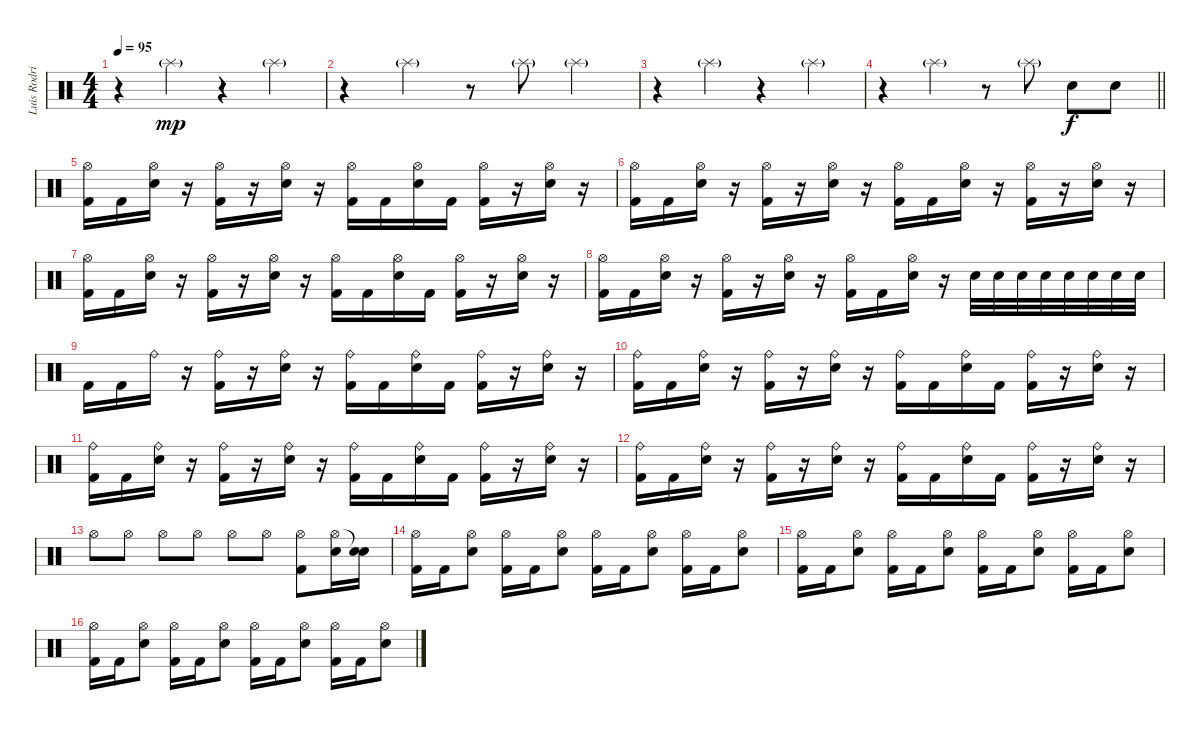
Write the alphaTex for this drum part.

\track ("Luis Rodriguez" "Luis Rodri") {instrument percussion}
\staff {score}
\articulation defaults
\ts (4 4)
\tempo 95
\clef neutral
\ks c
r.4{dy mp} "Splash (hit)"{g}.4 r.4 "Splash (hit)"{g}.4 |
r.4 "Splash (hit)"{g}.4 r.8 "Splash (hit)"{g}.8 "Splash (hit)"{g}.4 |
r.4 "Splash (hit)"{g}.4 r.4 "Splash (hit)"{g}.4 |
\barLineRight lightlight
r.4 "Splash (hit)"{g}.4 r.8 "Splash (hit)"{g}.8 "Electric Snare (hit)".8{dy f} "Electric Snare (hit)".8 |
("Hi-Hat (open)" "Kick (hit) 2").16 "Kick (hit) 2".16 ("Hi-Hat (open)" "Electric Snare (hit)").16 r.16 ("Hi-Hat (open)" "Kick (hit) 2").16 r.16 ("Hi-Hat (open)" "Electric Snare (hit)").16 r.16 ("Hi-Hat (open)" "Kick (hit) 2").16 "Kick (hit) 2".16 ("Hi-Hat (open)" "Electric Snare (hit)").16 "Kick (hit) 2".16 ("Hi-Hat (open)" "Kick (hit) 2").16 r.16 ("Hi-Hat (open)" "Electric Snare (hit)").16 r.16 |
("Hi-Hat (open)" "Kick (hit) 2").16 "Kick (hit) 2".16 ("Hi-Hat (open)" "Electric Snare (hit)").16 r.16 ("Hi-Hat (open)" "Kick (hit) 2").16 r.16 ("Hi-Hat (open)" "Electric Snare (hit)").16 r.16 ("Hi-Hat (open)" "Kick (hit) 2").16 "Kick (hit) 2".16 ("Hi-Hat (open)" "Electric Snare (hit)").16 r.16 ("Hi-Hat (open)" "Kick (hit) 2").16 r.16 ("Hi-Hat (open)" "Electric Snare (hit)").16 r.16 |
("Hi-Hat (open)" "Kick (hit) 2").16 "Kick (hit) 2".16 ("Hi-Hat (open)" "Electric Snare (hit)").16 r.16 ("Hi-Hat (open)" "Kick (hit) 2").16 r.16 ("Hi-Hat (open)" "Electric Snare (hit)").16 r.16 ("Hi-Hat (open)" "Kick (hit) 2").16 "Kick (hit) 2".16 ("Hi-Hat (open)" "Electric Snare (hit)").16 "Kick (hit) 2".16 ("Hi-Hat (open)" "Kick (hit) 2").16 r.16 ("Hi-Hat (open)" "Electric Snare (hit)").16 r.16 |
("Hi-Hat (open)" "Kick (hit) 2").16 "Kick (hit) 2".16 ("Hi-Hat (open)" "Electric Snare (hit)").16 r.16 ("Hi-Hat (open)" "Kick (hit) 2").16 r.16 ("Hi-Hat (open)" "Electric Snare (hit)").16 r.16 ("Hi-Hat (open)" "Kick (hit) 2").16 "Kick (hit) 2".16 ("Hi-Hat (open)" "Electric Snare (hit)").16 r.16 "Electric Snare (hit)".32 "Electric Snare (hit)".32 "Electric Snare (hit)".32 "Electric Snare (hit)".32 "Electric Snare (hit)".32 "Electric Snare (hit)".32 "Electric Snare (hit)".32 "Electric Snare (hit)".32 |
"Kick (hit) 2".16 "Kick (hit) 2".16 "Ride (bell)".16 r.16 ("Ride (bell)" "Kick (hit) 2").16 r.16 ("Ride (bell)" "Snare (hit) 2").16 r.16 ("Ride (bell)" "Kick (hit) 2").16 "Kick (hit) 2".16 ("Ride (bell)" "Snare (hit) 2").16 "Kick (hit) 2".16 ("Ride (bell)" "Kick (hit) 2").16 r.16 ("Ride (bell)" "Snare (hit) 2").16 r.16 |
("Ride (bell)" "Kick (hit) 2").16 "Kick (hit) 2".16 ("Ride (bell)" "Snare (hit) 2").16 r.16 ("Ride (bell)" "Kick (hit) 2").16 r.16 ("Ride (bell)" "Snare (hit) 2").16 r.16 ("Ride (bell)" "Kick (hit) 2").16 "Kick (hit) 2".16 ("Ride (bell)" "Snare (hit) 2").16 "Kick (hit) 2".16 ("Ride (bell)" "Kick (hit) 2").16 r.16 ("Ride (bell)" "Snare (hit) 2").16 r.16 |
("Ride (bell)" "Kick (hit) 2").16 "Kick (hit) 2".16 ("Ride (bell)" "Snare (hit) 2").16 r.16 ("Ride (bell)" "Kick (hit) 2").16 r.16 ("Ride (bell)" "Snare (hit) 2").16 r.16 ("Ride (bell)" "Kick (hit) 2").16 "Kick (hit) 2".16 ("Ride (bell)" "Snare (hit) 2").16 "Kick (hit) 2".16 ("Ride (bell)" "Kick (hit) 2").16 r.16 ("Ride (bell)" "Snare (hit) 2").16 r.16 |
("Ride (bell)" "Kick (hit) 2").16 "Kick (hit) 2".16 ("Ride (bell)" "Snare (hit) 2").16 r.16 ("Ride (bell)" "Kick (hit) 2").16 r.16 ("Ride (bell)" "Snare (hit) 2").16 r.16 ("Ride (bell)" "Kick (hit) 2").16 "Kick (hit) 2".16 ("Ride (bell)" "Snare (hit) 2").16 "Kick (hit) 2".16 ("Ride (bell)" "Kick (hit) 2").16 r.16 ("Ride (bell)" "Snare (hit) 2").16 r.16 |
"Hi-Hat (open)".8 "Hi-Hat (open)".8 "Hi-Hat (open)".8 "Hi-Hat (open)".8 "Hi-Hat (open)".8 "Hi-Hat (open)".8 ("Hi-Hat (open)" "Kick (hit) 2").8 ("Hi-Hat (open)" "Snare (hit) 2").16 ("Snare (hit)"{t} "Snare (hit) 2").16 |
("Hi-Hat (open)" "Kick (hit) 2").16 "Kick (hit) 2".16 ("Hi-Hat (open)" "Snare (hit) 2").8 ("Hi-Hat (open)" "Kick (hit) 2").16 "Kick (hit) 2".16 ("Hi-Hat (open)" "Snare (hit) 2").8 ("Hi-Hat (open)" "Kick (hit) 2").16 "Kick (hit) 2".16 ("Hi-Hat (open)" "Snare (hit) 2").8 ("Hi-Hat (open)" "Kick (hit) 2").16 "Kick (hit) 2".16 ("Hi-Hat (open)" "Snare (hit) 2").8 |
("Hi-Hat (open)" "Kick (hit) 2").16 "Kick (hit) 2".16 ("Hi-Hat (open)" "Snare (hit) 2").8 ("Hi-Hat (open)" "Kick (hit) 2").16 "Kick (hit) 2".16 ("Hi-Hat (open)" "Snare (hit) 2").8 ("Hi-Hat (open)" "Kick (hit) 2").16 "Kick (hit) 2".16 ("Hi-Hat (open)" "Snare (hit) 2").8 ("Hi-Hat (open)" "Kick (hit) 2").16 "Kick (hit) 2".16 ("Hi-Hat (open)" "Snare (hit) 2").8 |
("Hi-Hat (open)" "Kick (hit) 2").16 "Kick (hit) 2".16 ("Hi-Hat (open)" "Snare (hit) 2").8 ("Hi-Hat (open)" "Kick (hit) 2").16 "Kick (hit) 2".16 ("Hi-Hat (open)" "Snare (hit) 2").8 ("Hi-Hat (open)" "Kick (hit) 2").16 "Kick (hit) 2".16 ("Hi-Hat (open)" "Snare (hit) 2").8 ("Hi-Hat (open)" "Kick (hit) 2").16 "Kick (hit) 2".16 ("Hi-Hat (open)" "Snare (hit) 2").8
